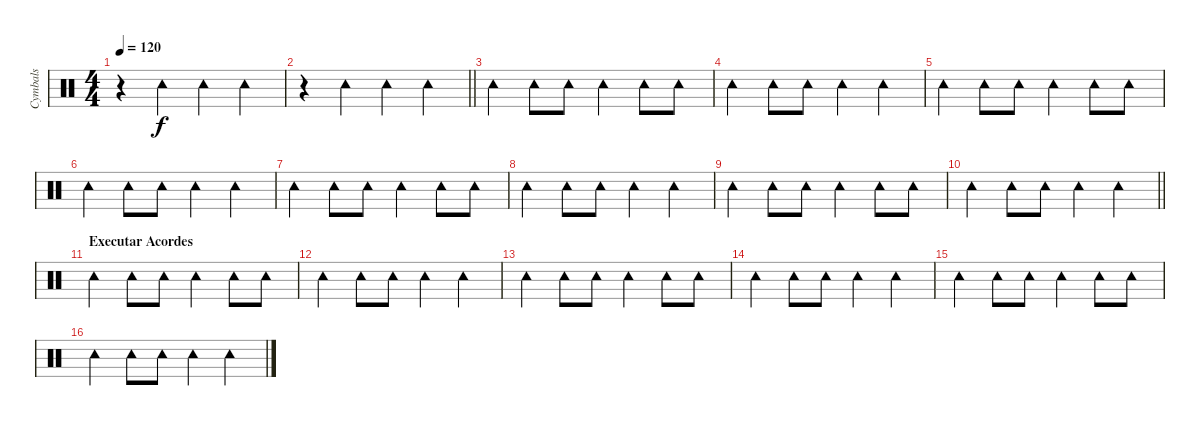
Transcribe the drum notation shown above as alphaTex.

\track ("Cymbals" "Cymbals") {instrument percussion}
\staff {score}
\articulation defaults
\ts (4 4)
\tempo 120
\clef neutral
\ks c
r.4{dy f} "Tambourine (hit)".4 "Tambourine (hit)".4 "Tambourine (hit)".4 |
\barLineRight lightlight
r.4 "Tambourine (hit)".4 "Tambourine (hit)".4 "Tambourine (hit)".4 |
"Tambourine (hit)".4 "Tambourine (hit)".8 "Tambourine (hit)".8 "Tambourine (hit)".4 "Tambourine (hit)".8 "Tambourine (hit)".8 |
"Tambourine (hit)".4 "Tambourine (hit)".8 "Tambourine (hit)".8 "Tambourine (hit)".4 "Tambourine (hit)".4 |
"Tambourine (hit)".4 "Tambourine (hit)".8 "Tambourine (hit)".8 "Tambourine (hit)".4 "Tambourine (hit)".8 "Tambourine (hit)".8 |
"Tambourine (hit)".4 "Tambourine (hit)".8 "Tambourine (hit)".8 "Tambourine (hit)".4 "Tambourine (hit)".4 |
"Tambourine (hit)".4 "Tambourine (hit)".8 "Tambourine (hit)".8 "Tambourine (hit)".4 "Tambourine (hit)".8 "Tambourine (hit)".8 |
"Tambourine (hit)".4 "Tambourine (hit)".8 "Tambourine (hit)".8 "Tambourine (hit)".4 "Tambourine (hit)".4 |
"Tambourine (hit)".4 "Tambourine (hit)".8 "Tambourine (hit)".8 "Tambourine (hit)".4 "Tambourine (hit)".8 "Tambourine (hit)".8 |
\barLineRight lightlight "Tambourine (hit)".4 "Tambourine (hit)".8 "Tambourine (hit)".8 "Tambourine (hit)".4 "Tambourine (hit)".4
|
\section ("" "Executar Acordes")
"Tambourine (hit)".4 "Tambourine (hit)".8 "Tambourine (hit)".8 "Tambourine (hit)".4 "Tambourine (hit)".8 "Tambourine (hit)".8 |
"Tambourine (hit)".4 "Tambourine (hit)".8 "Tambourine (hit)".8 "Tambourine (hit)".4 "Tambourine (hit)".4 |
"Tambourine (hit)".4 "Tambourine (hit)".8 "Tambourine (hit)".8 "Tambourine (hit)".4 "Tambourine (hit)".8 "Tambourine (hit)".8 |
"Tambourine (hit)".4 "Tambourine (hit)".8 "Tambourine (hit)".8 "Tambourine (hit)".4 "Tambourine (hit)".4 |
"Tambourine (hit)".4 "Tambourine (hit)".8 "Tambourine (hit)".8 "Tambourine (hit)".4 "Tambourine (hit)".8 "Tambourine (hit)".8 |
"Tambourine (hit)".4 "Tambourine (hit)".8 "Tambourine (hit)".8 "Tambourine (hit)".4 "Tambourine (hit)".4
